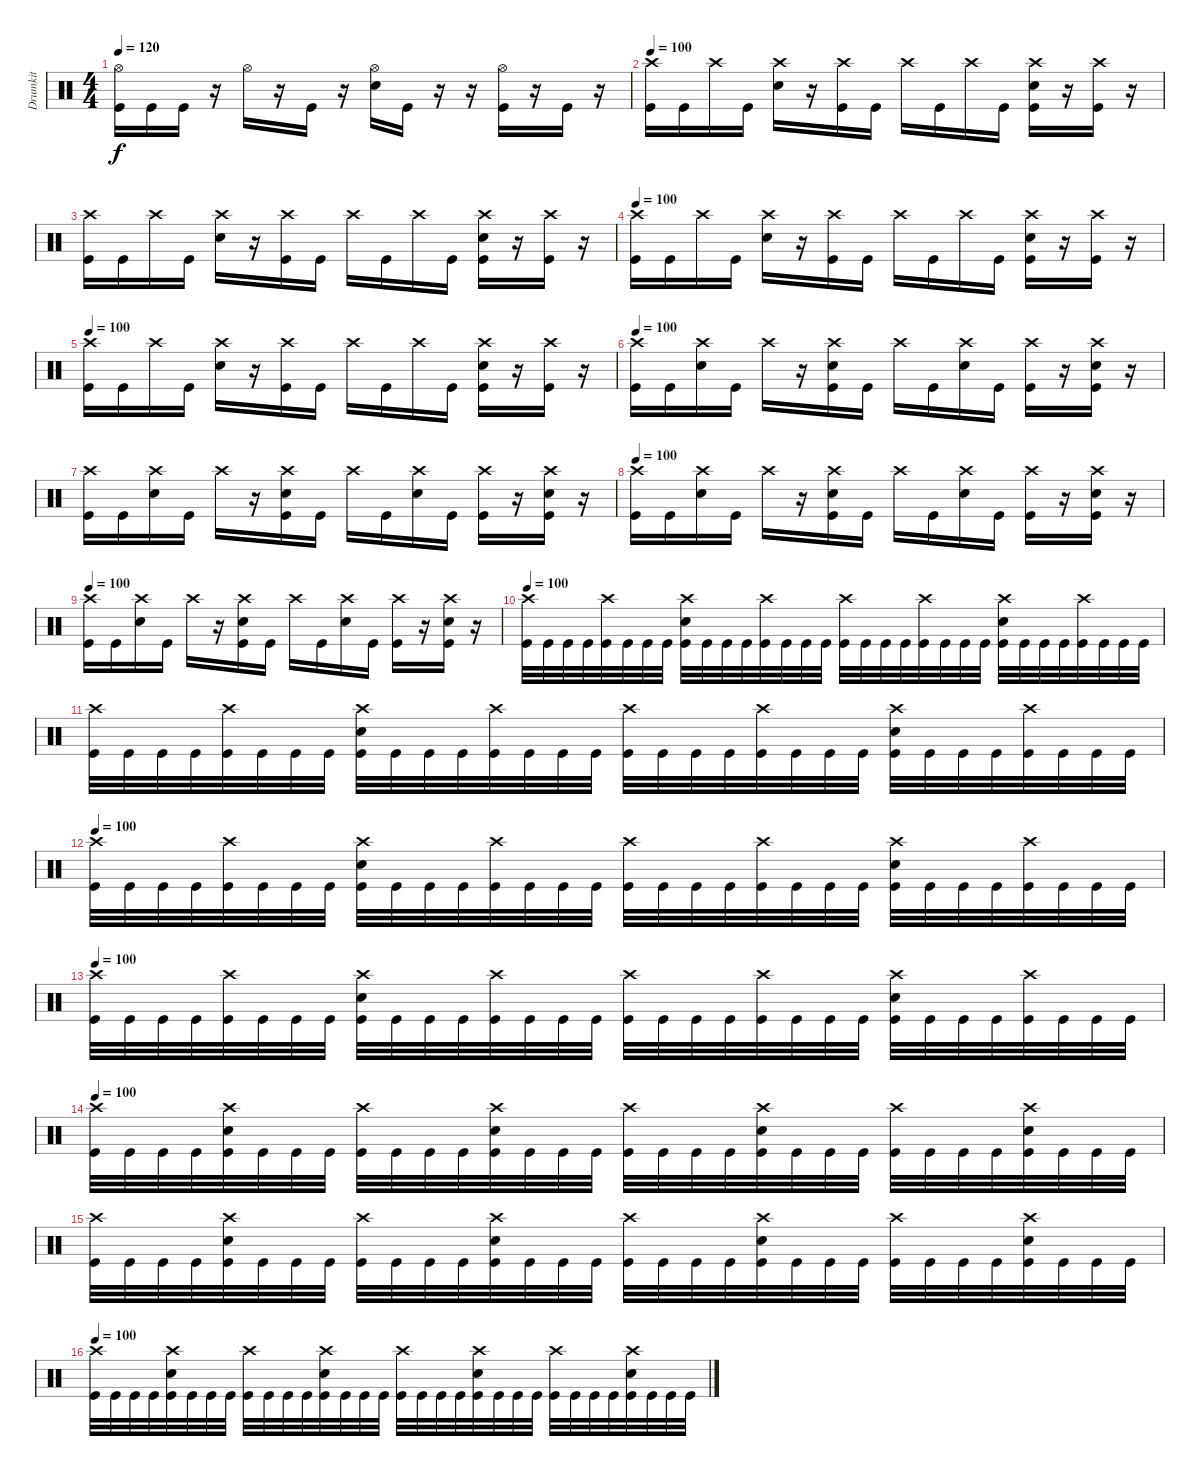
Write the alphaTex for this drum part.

\track ("Drumkit" "Drumkit") {instrument percussion}
\staff {score}
\articulation defaults
\ts (4 4)
\tempo 120
\clef neutral
\ks c
("Hi-Hat (open)" "Kick (hit)").16{dy f} "Kick (hit)".16 "Kick (hit)".16 r.16 "Hi-Hat (open)".16 r.16 "Kick (hit)".16 r.16 ("Hi-Hat (open)" "Snare (hit) 2").16 "Kick (hit)".16 r.16 r.16 ("Hi-Hat (open)" "Kick (hit)").16 r.16 "Kick (hit)".16 r.16 |
\tempo 100
("Crash high (hit)" "Kick (hit)").16 "Kick (hit)".16 "Crash high (hit)".16 "Kick (hit)".16 ("Snare (hit) 2" "Crash high (hit)").16 r.16 ("Crash high (hit)" "Kick (hit)").16 "Kick (hit)".16 "Crash high (hit)".16 "Kick (hit)".16 "Crash high (hit)".16 "Kick (hit)".16 ("Snare (hit) 2" "Crash high (hit)" "Kick (hit)").16 r.16 ("Crash high (hit)" "Kick (hit)").16 r.16 |
("Crash high (hit)" "Kick (hit)").16 "Kick (hit)".16 "Crash high (hit)".16 "Kick (hit)".16 ("Snare (hit) 2" "Crash high (hit)").16 r.16 ("Crash high (hit)" "Kick (hit)").16 "Kick (hit)".16 "Crash high (hit)".16 "Kick (hit)".16 "Crash high (hit)".16 "Kick (hit)".16 ("Snare (hit) 2" "Crash high (hit)" "Kick (hit)").16 r.16 ("Crash high (hit)" "Kick (hit)").16 r.16 |
\tempo 100
("Crash high (hit)" "Kick (hit)").16 "Kick (hit)".16 "Crash high (hit)".16 "Kick (hit)".16 ("Snare (hit) 2" "Crash high (hit)").16 r.16 ("Crash high (hit)" "Kick (hit)").16 "Kick (hit)".16 "Crash high (hit)".16 "Kick (hit)".16 "Crash high (hit)".16 "Kick (hit)".16 ("Snare (hit) 2" "Crash high (hit)" "Kick (hit)").16 r.16 ("Crash high (hit)" "Kick (hit)").16 r.16 |
\tempo 100
("Crash high (hit)" "Kick (hit)").16 "Kick (hit)".16 "Crash high (hit)".16 "Kick (hit)".16 ("Snare (hit) 2" "Crash high (hit)").16 r.16 ("Crash high (hit)" "Kick (hit)").16 "Kick (hit)".16 "Crash high (hit)".16 "Kick (hit)".16 "Crash high (hit)".16 "Kick (hit)".16 ("Snare (hit) 2" "Crash high (hit)" "Kick (hit)").16 r.16 ("Crash high (hit)" "Kick (hit)").16 r.16 |
\tempo 100
("Crash high (hit)" "Kick (hit)").16 "Kick (hit)".16 ("Snare (hit) 2" "Crash high (hit)").16 "Kick (hit)".16 "Crash high (hit)".16 r.16 ("Snare (hit) 2" "Crash high (hit)" "Kick (hit)").16 "Kick (hit)".16 "Crash high (hit)".16 "Kick (hit)".16 ("Snare (hit) 2" "Crash high (hit)").16 "Kick (hit)".16 ("Crash high (hit)" "Kick (hit)").16 r.16 ("Snare (hit) 2" "Crash high (hit)" "Kick (hit)").16 r.16 |
("Crash high (hit)" "Kick (hit)").16 "Kick (hit)".16 ("Snare (hit) 2" "Crash high (hit)").16 "Kick (hit)".16 "Crash high (hit)".16 r.16 ("Snare (hit) 2" "Crash high (hit)" "Kick (hit)").16 "Kick (hit)".16 "Crash high (hit)".16 "Kick (hit)".16 ("Snare (hit) 2" "Crash high (hit)").16 "Kick (hit)".16 ("Crash high (hit)" "Kick (hit)").16 r.16 ("Snare (hit) 2" "Crash high (hit)" "Kick (hit)").16 r.16 |
\tempo 100
("Crash high (hit)" "Kick (hit)").16 "Kick (hit)".16 ("Snare (hit) 2" "Crash high (hit)").16 "Kick (hit)".16 "Crash high (hit)".16 r.16 ("Snare (hit) 2" "Crash high (hit)" "Kick (hit)").16 "Kick (hit)".16 "Crash high (hit)".16 "Kick (hit)".16 ("Snare (hit) 2" "Crash high (hit)").16 "Kick (hit)".16 ("Crash high (hit)" "Kick (hit)").16 r.16 ("Snare (hit) 2" "Crash high (hit)" "Kick (hit)").16 r.16 |
\tempo 100
("Crash high (hit)" "Kick (hit)").16 "Kick (hit)".16 ("Snare (hit) 2" "Crash high (hit)").16 "Kick (hit)".16 "Crash high (hit)".16 r.16 ("Snare (hit) 2" "Crash high (hit)" "Kick (hit)").16 "Kick (hit)".16 "Crash high (hit)".16 "Kick (hit)".16 ("Snare (hit) 2" "Crash high (hit)").16 "Kick (hit)".16 ("Crash high (hit)" "Kick (hit)").16 r.16 ("Snare (hit) 2" "Crash high (hit)" "Kick (hit)").16 r.16 |
\tempo 100
("Crash high (hit)" "Kick (hit)").32 "Kick (hit)".32 "Kick (hit)".32 "Kick (hit)".32 ("Crash high (hit)" "Kick (hit)").32 "Kick (hit)".32 "Kick (hit)".32 "Kick (hit)".32 ("Snare (hit) 2" "Crash high (hit)" "Kick (hit)").32 "Kick (hit)".32 "Kick (hit)".32 "Kick (hit)".32 ("Crash high (hit)" "Kick (hit)").32 "Kick (hit)".32 "Kick (hit)".32 "Kick (hit)".32 ("Crash high (hit)" "Kick (hit)").32 "Kick (hit)".32 "Kick (hit)".32 "Kick (hit)".32 ("Crash high (hit)" "Kick (hit)").32 "Kick (hit)".32 "Kick (hit)".32 "Kick (hit)".32 ("Snare (hit) 2" "Crash high (hit)" "Kick (hit)").32 "Kick (hit)".32 "Kick (hit)".32 "Kick (hit)".32 ("Crash high (hit)" "Kick (hit)").32 "Kick (hit)".32 "Kick (hit)".32 "Kick (hit)".32 |
("Crash high (hit)" "Kick (hit)").32 "Kick (hit)".32 "Kick (hit)".32 "Kick (hit)".32 ("Crash high (hit)" "Kick (hit)").32 "Kick (hit)".32 "Kick (hit)".32 "Kick (hit)".32 ("Snare (hit) 2" "Crash high (hit)" "Kick (hit)").32 "Kick (hit)".32 "Kick (hit)".32 "Kick (hit)".32 ("Crash high (hit)" "Kick (hit)").32 "Kick (hit)".32 "Kick (hit)".32 "Kick (hit)".32 ("Crash high (hit)" "Kick (hit)").32 "Kick (hit)".32 "Kick (hit)".32 "Kick (hit)".32 ("Crash high (hit)" "Kick (hit)").32 "Kick (hit)".32 "Kick (hit)".32 "Kick (hit)".32 ("Snare (hit) 2" "Crash high (hit)" "Kick (hit)").32 "Kick (hit)".32 "Kick (hit)".32 "Kick (hit)".32 ("Crash high (hit)" "Kick (hit)").32 "Kick (hit)".32 "Kick (hit)".32 "Kick (hit)".32 |
\tempo 100
("Crash high (hit)" "Kick (hit)").32 "Kick (hit)".32 "Kick (hit)".32 "Kick (hit)".32 ("Crash high (hit)" "Kick (hit)").32 "Kick (hit)".32 "Kick (hit)".32 "Kick (hit)".32 ("Snare (hit) 2" "Crash high (hit)" "Kick (hit)").32 "Kick (hit)".32 "Kick (hit)".32 "Kick (hit)".32 ("Crash high (hit)" "Kick (hit)").32 "Kick (hit)".32 "Kick (hit)".32 "Kick (hit)".32 ("Crash high (hit)" "Kick (hit)").32 "Kick (hit)".32 "Kick (hit)".32 "Kick (hit)".32 ("Crash high (hit)" "Kick (hit)").32 "Kick (hit)".32 "Kick (hit)".32 "Kick (hit)".32 ("Snare (hit) 2" "Crash high (hit)" "Kick (hit)").32 "Kick (hit)".32 "Kick (hit)".32 "Kick (hit)".32 ("Crash high (hit)" "Kick (hit)").32 "Kick (hit)".32 "Kick (hit)".32 "Kick (hit)".32 |
\tempo 100
("Crash high (hit)" "Kick (hit)").32 "Kick (hit)".32 "Kick (hit)".32 "Kick (hit)".32 ("Crash high (hit)" "Kick (hit)").32 "Kick (hit)".32 "Kick (hit)".32 "Kick (hit)".32 ("Snare (hit) 2" "Crash high (hit)" "Kick (hit)").32 "Kick (hit)".32 "Kick (hit)".32 "Kick (hit)".32 ("Crash high (hit)" "Kick (hit)").32 "Kick (hit)".32 "Kick (hit)".32 "Kick (hit)".32 ("Crash high (hit)" "Kick (hit)").32 "Kick (hit)".32 "Kick (hit)".32 "Kick (hit)".32 ("Crash high (hit)" "Kick (hit)").32 "Kick (hit)".32 "Kick (hit)".32 "Kick (hit)".32 ("Snare (hit) 2" "Crash high (hit)" "Kick (hit)").32 "Kick (hit)".32 "Kick (hit)".32 "Kick (hit)".32 ("Crash high (hit)" "Kick (hit)").32 "Kick (hit)".32 "Kick (hit)".32 "Kick (hit)".32 |
\tempo 100
("Crash high (hit)" "Kick (hit)").32 "Kick (hit)".32 "Kick (hit)".32 "Kick (hit)".32 ("Snare (hit) 2" "Crash high (hit)" "Kick (hit)").32 "Kick (hit)".32 "Kick (hit)".32 "Kick (hit)".32 ("Crash high (hit)" "Kick (hit)").32 "Kick (hit)".32 "Kick (hit)".32 "Kick (hit)".32 ("Snare (hit) 2" "Crash high (hit)" "Kick (hit)").32 "Kick (hit)".32 "Kick (hit)".32 "Kick (hit)".32 ("Crash high (hit)" "Kick (hit)").32 "Kick (hit)".32 "Kick (hit)".32 "Kick (hit)".32 ("Snare (hit) 2" "Crash high (hit)" "Kick (hit)").32 "Kick (hit)".32 "Kick (hit)".32 "Kick (hit)".32 ("Crash high (hit)" "Kick (hit)").32 "Kick (hit)".32 "Kick (hit)".32 "Kick (hit)".32 ("Snare (hit) 2" "Crash high (hit)" "Kick (hit)").32 "Kick (hit)".32 "Kick (hit)".32 "Kick (hit)".32 |
("Crash high (hit)" "Kick (hit)").32 "Kick (hit)".32 "Kick (hit)".32 "Kick (hit)".32 ("Snare (hit) 2" "Crash high (hit)" "Kick (hit)").32 "Kick (hit)".32 "Kick (hit)".32 "Kick (hit)".32 ("Crash high (hit)" "Kick (hit)").32 "Kick (hit)".32 "Kick (hit)".32 "Kick (hit)".32 ("Snare (hit) 2" "Crash high (hit)" "Kick (hit)").32 "Kick (hit)".32 "Kick (hit)".32 "Kick (hit)".32 ("Crash high (hit)" "Kick (hit)").32 "Kick (hit)".32 "Kick (hit)".32 "Kick (hit)".32 ("Snare (hit) 2" "Crash high (hit)" "Kick (hit)").32 "Kick (hit)".32 "Kick (hit)".32 "Kick (hit)".32 ("Crash high (hit)" "Kick (hit)").32 "Kick (hit)".32 "Kick (hit)".32 "Kick (hit)".32 ("Snare (hit) 2" "Crash high (hit)" "Kick (hit)").32 "Kick (hit)".32 "Kick (hit)".32 "Kick (hit)".32 |
\tempo 100
("Crash high (hit)" "Kick (hit)").32 "Kick (hit)".32 "Kick (hit)".32 "Kick (hit)".32 ("Snare (hit) 2" "Crash high (hit)" "Kick (hit)").32 "Kick (hit)".32 "Kick (hit)".32 "Kick (hit)".32 ("Crash high (hit)" "Kick (hit)").32 "Kick (hit)".32 "Kick (hit)".32 "Kick (hit)".32 ("Snare (hit) 2" "Crash high (hit)" "Kick (hit)").32 "Kick (hit)".32 "Kick (hit)".32 "Kick (hit)".32 ("Crash high (hit)" "Kick (hit)").32 "Kick (hit)".32 "Kick (hit)".32 "Kick (hit)".32 ("Snare (hit) 2" "Crash high (hit)" "Kick (hit)").32 "Kick (hit)".32 "Kick (hit)".32 "Kick (hit)".32 ("Crash high (hit)" "Kick (hit)").32 "Kick (hit)".32 "Kick (hit)".32 "Kick (hit)".32 ("Snare (hit) 2" "Crash high (hit)" "Kick (hit)").32 "Kick (hit)".32 "Kick (hit)".32 "Kick (hit)".32
